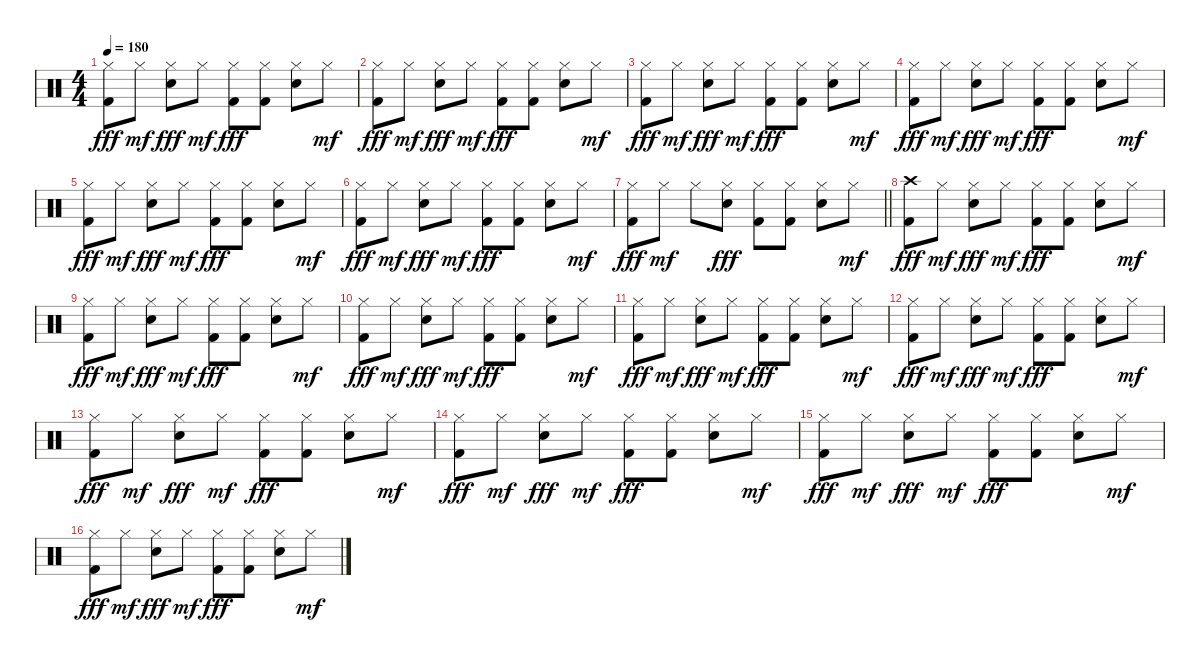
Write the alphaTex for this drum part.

\track "" {instrument percussion}
\staff {score}
\articulation defaults
\ts (4 4)
\tempo 180
\clef neutral
\ks c
("Hi-Hat (closed)" "Kick (hit) 2").8{dy fff} "Hi-Hat (closed)".8{dy mf} ("Hi-Hat (closed)" "Snare (hit) 2").8{dy fff} "Hi-Hat (closed)".8{dy mf} ("Hi-Hat (closed)" "Kick (hit) 2").8{dy fff} ("Hi-Hat (closed)" "Kick (hit) 2").8 ("Hi-Hat (closed)" "Snare (hit) 2").8 "Hi-Hat (closed)".8{dy mf} |
("Hi-Hat (closed)" "Kick (hit) 2").8{dy fff} "Hi-Hat (closed)".8{dy mf} ("Hi-Hat (closed)" "Snare (hit) 2").8{dy fff} "Hi-Hat (closed)".8{dy mf} ("Hi-Hat (closed)" "Kick (hit) 2").8{dy fff} ("Hi-Hat (closed)" "Kick (hit) 2").8 ("Hi-Hat (closed)" "Snare (hit) 2").8 "Hi-Hat (closed)".8{dy mf} |
("Hi-Hat (closed)" "Kick (hit) 2").8{dy fff} "Hi-Hat (closed)".8{dy mf} ("Hi-Hat (closed)" "Snare (hit) 2").8{dy fff} "Hi-Hat (closed)".8{dy mf} ("Hi-Hat (closed)" "Kick (hit) 2").8{dy fff} ("Hi-Hat (closed)" "Kick (hit) 2").8 ("Hi-Hat (closed)" "Snare (hit) 2").8 "Hi-Hat (closed)".8{dy mf} |
("Hi-Hat (closed)" "Kick (hit) 2").8{dy fff} "Hi-Hat (closed)".8{dy mf} ("Hi-Hat (closed)" "Snare (hit) 2").8{dy fff} "Hi-Hat (closed)".8{dy mf} ("Hi-Hat (closed)" "Kick (hit) 2").8{dy fff} ("Hi-Hat (closed)" "Kick (hit) 2").8 ("Hi-Hat (closed)" "Snare (hit) 2").8 "Hi-Hat (closed)".8{dy mf} |
("Hi-Hat (closed)" "Kick (hit) 2").8{dy fff} "Hi-Hat (closed)".8{dy mf} ("Hi-Hat (closed)" "Snare (hit) 2").8{dy fff} "Hi-Hat (closed)".8{dy mf} ("Hi-Hat (closed)" "Kick (hit) 2").8{dy fff} ("Hi-Hat (closed)" "Kick (hit) 2").8 ("Hi-Hat (closed)" "Snare (hit) 2").8 "Hi-Hat (closed)".8{dy mf} |
("Hi-Hat (closed)" "Kick (hit) 2").8{dy fff} "Hi-Hat (closed)".8{dy mf} ("Hi-Hat (closed)" "Snare (hit) 2").8{dy fff} "Hi-Hat (closed)".8{dy mf} ("Hi-Hat (closed)" "Kick (hit) 2").8{dy fff} ("Hi-Hat (closed)" "Kick (hit) 2").8 ("Hi-Hat (closed)" "Snare (hit) 2").8 "Hi-Hat (closed)".8{dy mf} |
\barLineRight lightlight
("Hi-Hat (closed)" "Kick (hit) 2").8{dy fff} "Hi-Hat (closed)".8{dy mf} "Hi-Hat (closed)".8 ("Hi-Hat (closed)" "Snare (hit) 2").8{dy fff} ("Hi-Hat (closed)" "Kick (hit) 2").8 ("Hi-Hat (closed)" "Kick (hit) 2").8 ("Hi-Hat (closed)" "Snare (hit) 2").8 "Hi-Hat (closed)".8{dy mf} |
\section ("" "")
("Crash high (hit)" "Kick (hit) 2").8{dy fff} "Hi-Hat (closed)".8{dy mf} ("Hi-Hat (closed)" "Snare (hit) 2").8{dy fff} "Hi-Hat (closed)".8{dy mf} ("Hi-Hat (closed)" "Kick (hit) 2").8{dy fff} ("Hi-Hat (closed)" "Kick (hit) 2").8 ("Hi-Hat (closed)" "Snare (hit) 2").8 "Hi-Hat (closed)".8{dy mf} |
("Hi-Hat (closed)" "Kick (hit) 2").8{dy fff} "Hi-Hat (closed)".8{dy mf} ("Hi-Hat (closed)" "Snare (hit) 2").8{dy fff} "Hi-Hat (closed)".8{dy mf} ("Hi-Hat (closed)" "Kick (hit) 2").8{dy fff} ("Hi-Hat (closed)" "Kick (hit) 2").8 ("Hi-Hat (closed)" "Snare (hit) 2").8 "Hi-Hat (closed)".8{dy mf} |
("Hi-Hat (closed)" "Kick (hit) 2").8{dy fff} "Hi-Hat (closed)".8{dy mf} ("Hi-Hat (closed)" "Snare (hit) 2").8{dy fff} "Hi-Hat (closed)".8{dy mf} ("Hi-Hat (closed)" "Kick (hit) 2").8{dy fff} ("Hi-Hat (closed)" "Kick (hit) 2").8 ("Hi-Hat (closed)" "Snare (hit) 2").8 "Hi-Hat (closed)".8{dy mf} |
("Hi-Hat (closed)" "Kick (hit) 2").8{dy fff} "Hi-Hat (closed)".8{dy mf} ("Hi-Hat (closed)" "Snare (hit) 2").8{dy fff} "Hi-Hat (closed)".8{dy mf} ("Hi-Hat (closed)" "Kick (hit) 2").8{dy fff} ("Hi-Hat (closed)" "Kick (hit) 2").8 ("Hi-Hat (closed)" "Snare (hit) 2").8 "Hi-Hat (closed)".8{dy mf} |
("Hi-Hat (closed)" "Kick (hit) 2").8{dy fff} "Hi-Hat (closed)".8{dy mf} ("Hi-Hat (closed)" "Snare (hit) 2").8{dy fff} "Hi-Hat (closed)".8{dy mf} ("Hi-Hat (closed)" "Kick (hit) 2").8{dy fff} ("Hi-Hat (closed)" "Kick (hit) 2").8 ("Hi-Hat (closed)" "Snare (hit) 2").8 "Hi-Hat (closed)".8{dy mf} |
("Hi-Hat (closed)" "Kick (hit) 2").8{dy fff} "Hi-Hat (closed)".8{dy mf} ("Hi-Hat (closed)" "Snare (hit) 2").8{dy fff} "Hi-Hat (closed)".8{dy mf} ("Hi-Hat (closed)" "Kick (hit) 2").8{dy fff} ("Hi-Hat (closed)" "Kick (hit) 2").8 ("Hi-Hat (closed)" "Snare (hit) 2").8 "Hi-Hat (closed)".8{dy mf} |
("Hi-Hat (closed)" "Kick (hit) 2").8{dy fff} "Hi-Hat (closed)".8{dy mf} ("Hi-Hat (closed)" "Snare (hit) 2").8{dy fff} "Hi-Hat (closed)".8{dy mf} ("Hi-Hat (closed)" "Kick (hit) 2").8{dy fff} ("Hi-Hat (closed)" "Kick (hit) 2").8 ("Hi-Hat (closed)" "Snare (hit) 2").8 "Hi-Hat (closed)".8{dy mf} |
("Hi-Hat (closed)" "Kick (hit) 2").8{dy fff} "Hi-Hat (closed)".8{dy mf} ("Hi-Hat (closed)" "Snare (hit) 2").8{dy fff} "Hi-Hat (closed)".8{dy mf} ("Hi-Hat (closed)" "Kick (hit) 2").8{dy fff} ("Hi-Hat (closed)" "Kick (hit) 2").8 ("Hi-Hat (closed)" "Snare (hit) 2").8 "Hi-Hat (closed)".8{dy mf} |
("Hi-Hat (closed)" "Kick (hit) 2").8{dy fff} "Hi-Hat (closed)".8{dy mf} ("Hi-Hat (closed)" "Snare (hit) 2").8{dy fff} "Hi-Hat (closed)".8{dy mf} ("Hi-Hat (closed)" "Kick (hit) 2").8{dy fff} ("Hi-Hat (closed)" "Kick (hit) 2").8 ("Hi-Hat (closed)" "Snare (hit) 2").8 "Hi-Hat (closed)".8{dy mf}
